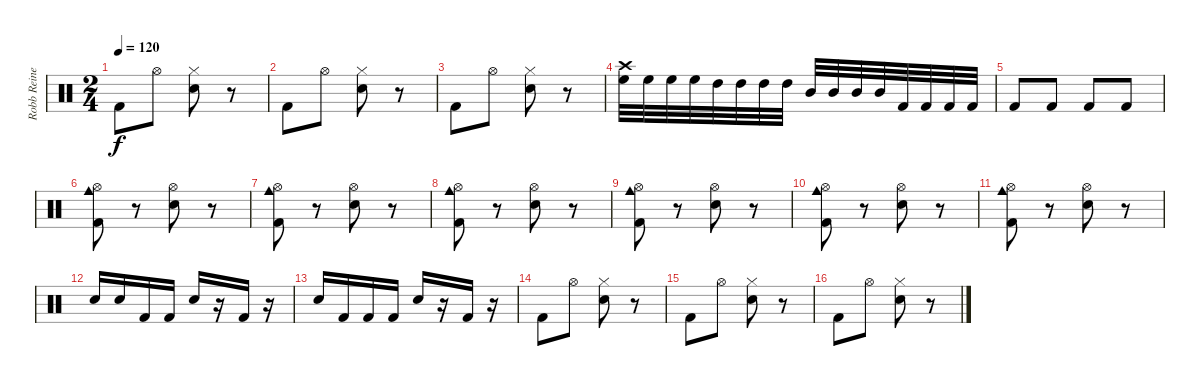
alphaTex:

\track ("Robb Reiner" "Robb Reine") {instrument percussion}
\staff {score}
\articulation defaults
\ts (2 4)
\tempo 120
\clef neutral
\ks c "Kick (hit) 2".8{dy f} "Hi-Hat (open)".8
("Hi-Hat (closed)" "Snare (hit) 2").8 r.8 |
"Kick (hit) 2".8 "Hi-Hat (open)".8 ("Hi-Hat (closed)" "Snare (hit) 2").8 r.8 |
"Kick (hit) 2".8 "Hi-Hat (open)".8 ("Hi-Hat (closed)" "Snare (hit) 2").8 r.8 |
("High Floor Tom (hit)" "Crash high (hit)").32 "High Floor Tom (hit)".32 "High Floor Tom (hit)".32 "High Floor Tom (hit)".32 "High Tom (hit)".32 "High Tom (hit)".32 "High Tom (hit)".32 "High Tom (hit)".32 "Mid Tom (hit)".32 "Mid Tom (hit)".32 "Mid Tom (hit)".32 "Mid Tom (hit)".32 "Kick (hit) 2".32 "Kick (hit) 2".32 "Kick (hit) 2".32 "Kick (hit) 2".32 |
"Kick (hit) 2".8 "Kick (hit) 2".8 "Kick (hit) 2".8 "Kick (hit) 2".8 |
("Cowbell medium (hit)" "Hi-Hat (open)" "Kick (hit) 2").8 r.8 ("Hi-Hat (open)" "Snare (hit) 2").8 r.8 |
("Cowbell medium (hit)" "Hi-Hat (open)" "Kick (hit) 2").8 r.8 ("Hi-Hat (open)" "Snare (hit) 2").8 r.8 |
("Cowbell medium (hit)" "Hi-Hat (open)" "Kick (hit) 2").8 r.8 ("Hi-Hat (open)" "Snare (hit) 2").8 r.8 |
("Cowbell medium (hit)" "Hi-Hat (open)" "Kick (hit) 2").8 r.8 ("Hi-Hat (open)" "Snare (hit) 2").8 r.8 |
("Cowbell medium (hit)" "Hi-Hat (open)" "Kick (hit) 2").8 r.8 ("Hi-Hat (open)" "Snare (hit) 2").8 r.8 |
("Cowbell medium (hit)" "Hi-Hat (open)" "Kick (hit) 2").8 r.8 ("Hi-Hat (open)" "Snare (hit) 2").8 r.8 |
"Snare (hit) 2".16 "Snare (hit) 2".16 "Kick (hit) 2".16 "Kick (hit) 2".16 "Snare (hit) 2".16 r.16 "Kick (hit) 2".16 r.16 |
"Snare (hit) 2".16 "Kick (hit) 2".16 "Kick (hit) 2".16 "Kick (hit) 2".16 "Snare (hit) 2".16 r.16 "Kick (hit) 2".16 r.16 |
"Kick (hit) 2".8 "Hi-Hat (open)".8 ("Hi-Hat (closed)" "Snare (hit) 2").8 r.8 |
"Kick (hit) 2".8 "Hi-Hat (open)".8 ("Hi-Hat (closed)" "Snare (hit) 2").8 r.8 |
"Kick (hit) 2".8 "Hi-Hat (open)".8 ("Hi-Hat (closed)" "Snare (hit) 2").8 r.8
